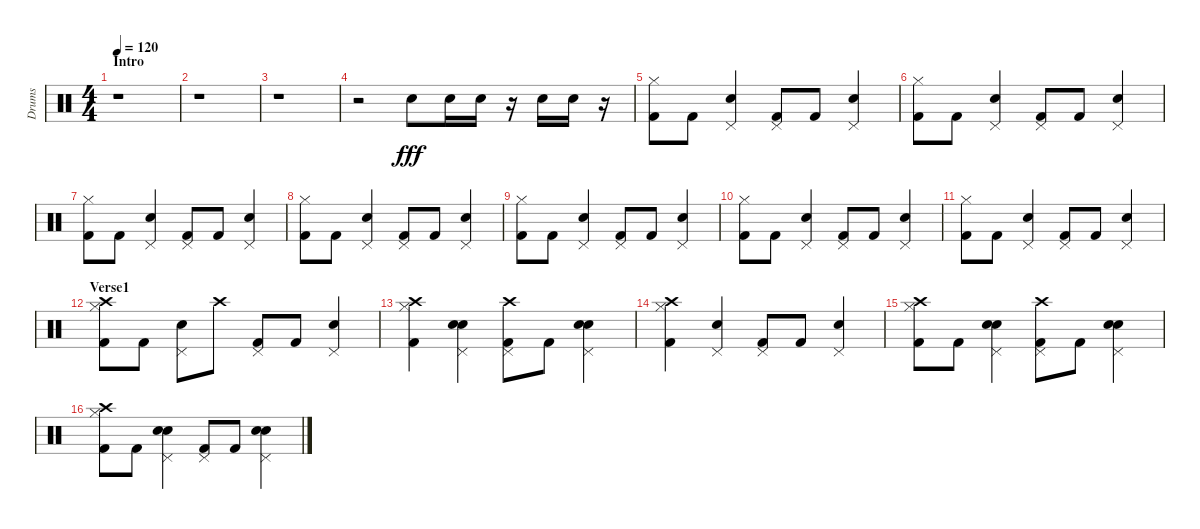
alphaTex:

\track ("Drums" "Drums") {instrument percussion}
\staff {score}
\articulation defaults
\ts (4 4)
\section ("" "Intro")
\tempo 120
\clef neutral
\ks c
r.1{dy fff} |
r.1 |
r.1 |
r.2 "Electric Snare (hit)".8 "Electric Snare (hit)".16 "Electric Snare (hit)".16 r.16 "Electric Snare (hit)".16 "Electric Snare (hit)".16 r.16 |
("Hi-Hat (closed)" "Kick (hit) 2").8 "Kick (hit) 2".8 ("Electric Snare (hit)" "Pedal Hi-Hat (hit)").4 ("Pedal Hi-Hat (hit)" "Kick (hit) 2").8 "Kick (hit) 2".8 ("Electric Snare (hit)" "Pedal Hi-Hat (hit)").4 |
("Hi-Hat (closed)" "Kick (hit) 2").8 "Kick (hit) 2".8 ("Electric Snare (hit)" "Pedal Hi-Hat (hit)").4 ("Pedal Hi-Hat (hit)" "Kick (hit) 2").8 "Kick (hit) 2".8 ("Electric Snare (hit)" "Pedal Hi-Hat (hit)").4 |
("Hi-Hat (closed)" "Kick (hit) 2").8 "Kick (hit) 2".8 ("Electric Snare (hit)" "Pedal Hi-Hat (hit)").4 ("Pedal Hi-Hat (hit)" "Kick (hit) 2").8 "Kick (hit) 2".8 ("Electric Snare (hit)" "Pedal Hi-Hat (hit)").4 |
("Hi-Hat (closed)" "Kick (hit) 2").8 "Kick (hit) 2".8 ("Electric Snare (hit)" "Pedal Hi-Hat (hit)").4 ("Pedal Hi-Hat (hit)" "Kick (hit) 2").8 "Kick (hit) 2".8 ("Electric Snare (hit)" "Pedal Hi-Hat (hit)").4 |
("Hi-Hat (closed)" "Kick (hit) 2").8 "Kick (hit) 2".8 ("Electric Snare (hit)" "Pedal Hi-Hat (hit)").4 ("Pedal Hi-Hat (hit)" "Kick (hit) 2").8 "Kick (hit) 2".8 ("Electric Snare (hit)" "Pedal Hi-Hat (hit)").4 |
("Hi-Hat (closed)" "Kick (hit) 2").8 "Kick (hit) 2".8 ("Electric Snare (hit)" "Pedal Hi-Hat (hit)").4 ("Pedal Hi-Hat (hit)" "Kick (hit) 2").8 "Kick (hit) 2".8 ("Electric Snare (hit)" "Pedal Hi-Hat (hit)").4 |
("Hi-Hat (closed)" "Kick (hit) 2").8 "Kick (hit) 2".8 ("Electric Snare (hit)" "Pedal Hi-Hat (hit)").4 ("Pedal Hi-Hat (hit)" "Kick (hit) 2").8 "Kick (hit) 2".8 ("Electric Snare (hit)" "Pedal Hi-Hat (hit)").4 |
\section ("" "Verse1")
("Hi-Hat (closed)" "Kick (hit) 2" "Crash high (hit)").8 "Kick (hit) 2".8 ("Electric Snare (hit)" "Pedal Hi-Hat (hit)").8 "Crash high (hit)".8 ("Pedal Hi-Hat (hit)" "Kick (hit) 2").8 "Kick (hit) 2".8 ("Electric Snare (hit)" "Pedal Hi-Hat (hit)").4 |
("Hi-Hat (closed)" "Kick (hit) 2" "Crash high (hit)").4 ("Electric Snare (hit)" "Pedal Hi-Hat (hit)" "Snare (hit) 2").4 ("Pedal Hi-Hat (hit)" "Kick (hit) 2" "Crash high (hit)").8 "Kick (hit) 2".8 ("Electric Snare (hit)" "Pedal Hi-Hat (hit)" "Snare (hit) 2").4 |
("Hi-Hat (closed)" "Kick (hit) 2" "Crash high (hit)").4 ("Electric Snare (hit)" "Pedal Hi-Hat (hit)").4 ("Pedal Hi-Hat (hit)" "Kick (hit) 2").8 "Kick (hit) 2".8 ("Electric Snare (hit)" "Pedal Hi-Hat (hit)").4 |
("Hi-Hat (closed)" "Kick (hit) 2" "Crash high (hit)").8 "Kick (hit) 2".8 ("Electric Snare (hit)" "Pedal Hi-Hat (hit)" "Snare (hit) 2").4 ("Pedal Hi-Hat (hit)" "Kick (hit) 2" "Crash high (hit)").8 "Kick (hit) 2".8 ("Electric Snare (hit)" "Pedal Hi-Hat (hit)" "Snare (hit) 2").4 |
("Hi-Hat (closed)" "Kick (hit) 2" "Crash high (hit)").8 "Kick (hit) 2".8 ("Electric Snare (hit)" "Pedal Hi-Hat (hit)" "Snare (hit) 2").4 ("Pedal Hi-Hat (hit)" "Kick (hit) 2").8 "Kick (hit) 2".8 ("Electric Snare (hit)" "Pedal Hi-Hat (hit)" "Snare (hit) 2").4
